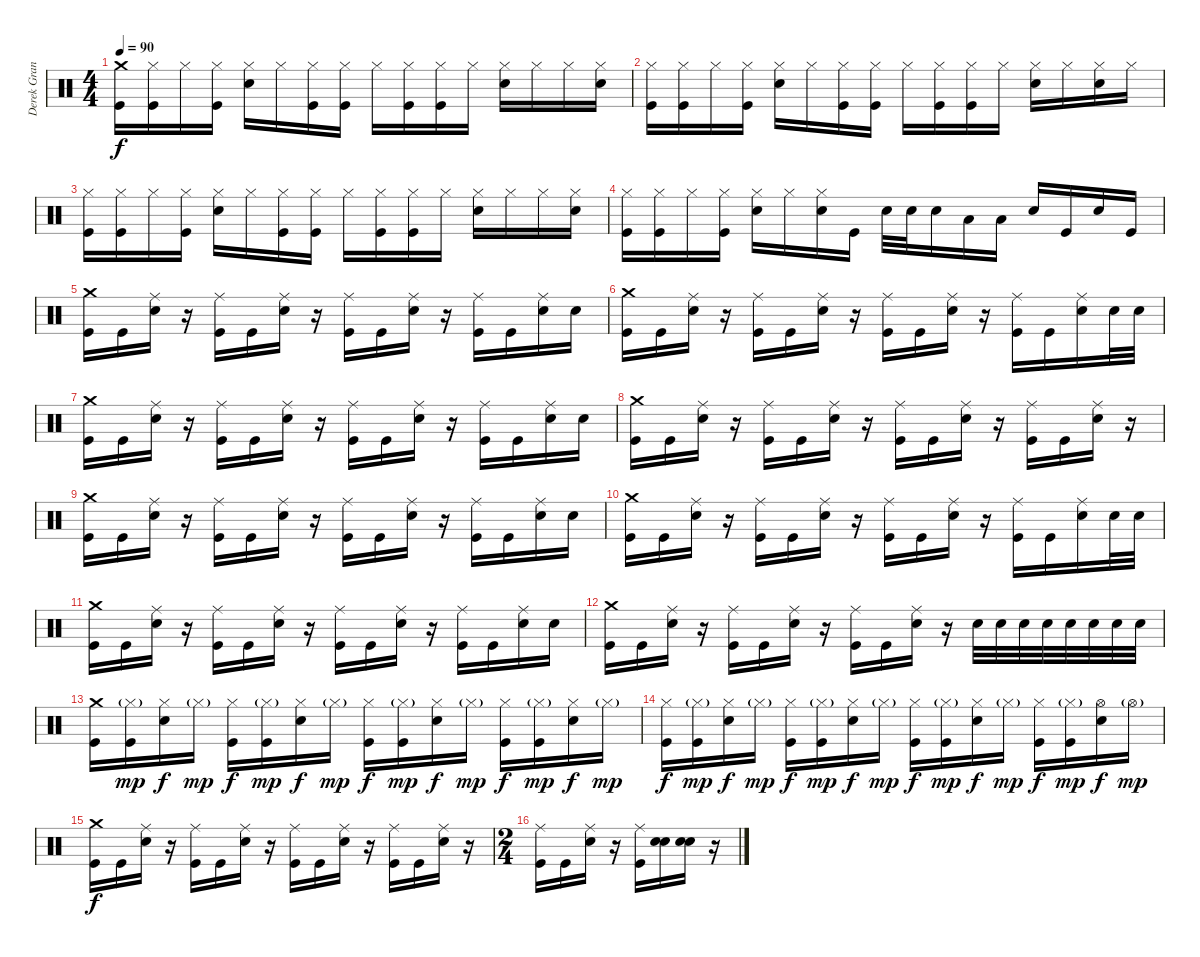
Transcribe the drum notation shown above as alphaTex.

\track ("Derek Grant" "Derek Gran") {instrument percussion}
\staff {score}
\articulation defaults
\ts (4 4)
\tempo 90
\clef neutral
\ks c
("Crash medium (hit)" "Kick (hit)").16{dy f} ("Hi-Hat (closed)" "Kick (hit)").16 "Hi-Hat (closed)".16 ("Hi-Hat (closed)" "Kick (hit)").16 ("Hi-Hat (closed)" "Electric Snare (hit)").16 "Hi-Hat (closed)".16 ("Hi-Hat (closed)" "Kick (hit)").16 ("Hi-Hat (closed)" "Kick (hit)").16 "Hi-Hat (closed)".16 ("Hi-Hat (closed)" "Kick (hit)").16 ("Hi-Hat (closed)" "Kick (hit)").16 "Hi-Hat (closed)".16 ("Hi-Hat (closed)" "Electric Snare (hit)").16 "Hi-Hat (closed)".16 "Hi-Hat (closed)".16 ("Hi-Hat (closed)" "Electric Snare (hit)").16 |
("Hi-Hat (closed)" "Kick (hit)").16 ("Hi-Hat (closed)" "Kick (hit)").16 "Hi-Hat (closed)".16 ("Hi-Hat (closed)" "Kick (hit)").16 ("Hi-Hat (closed)" "Electric Snare (hit)").16 "Hi-Hat (closed)".16 ("Hi-Hat (closed)" "Kick (hit)").16 ("Hi-Hat (closed)" "Kick (hit)").16 "Hi-Hat (closed)".16 ("Hi-Hat (closed)" "Kick (hit)").16 ("Hi-Hat (closed)" "Kick (hit)").16 "Hi-Hat (closed)".16 ("Hi-Hat (closed)" "Electric Snare (hit)").16 "Hi-Hat (closed)".16 ("Hi-Hat (closed)" "Electric Snare (hit)").16 "Hi-Hat (closed)".16 |
("Hi-Hat (closed)" "Kick (hit)").16 ("Hi-Hat (closed)" "Kick (hit)").16 "Hi-Hat (closed)".16 ("Hi-Hat (closed)" "Kick (hit)").16 ("Hi-Hat (closed)" "Electric Snare (hit)").16 "Hi-Hat (closed)".16 ("Hi-Hat (closed)" "Kick (hit)").16 ("Hi-Hat (closed)" "Kick (hit)").16 "Hi-Hat (closed)".16 ("Hi-Hat (closed)" "Kick (hit)").16 ("Hi-Hat (closed)" "Kick (hit)").16 "Hi-Hat (closed)".16 ("Hi-Hat (closed)" "Electric Snare (hit)").16 "Hi-Hat (closed)".16 "Hi-Hat (closed)".16 ("Hi-Hat (closed)" "Electric Snare (hit)").16 |
("Hi-Hat (closed)" "Kick (hit)").16 ("Hi-Hat (closed)" "Kick (hit)").16 "Hi-Hat (closed)".16 ("Hi-Hat (closed)" "Kick (hit)").16 ("Hi-Hat (closed)" "Electric Snare (hit)").16 "Hi-Hat (closed)".16 ("Hi-Hat (closed)" "Electric Snare (hit)").16 "Kick (hit)".16 "Electric Snare (hit)".32 "Electric Snare (hit)".32 "Electric Snare (hit)".16 "Low Tom (hit)".16 "Low Tom (hit)".16 "Electric Snare (hit)".16 "Kick (hit)".16 "Electric Snare (hit)".16 "Kick (hit)".16 |
("Crash medium (hit)" "Kick (hit)").16 "Kick (hit)".16 ("Ride (middle)" "Electric Snare (hit)").16 r.16 ("Ride (middle)" "Kick (hit)").16 "Kick (hit)".16 ("Ride (middle)" "Electric Snare (hit)").16 r.16 ("Ride (middle)" "Kick (hit)").16 "Kick (hit)".16 ("Ride (middle)" "Electric Snare (hit)").16 r.16 ("Ride (middle)" "Kick (hit)").16 "Kick (hit)".16 ("Ride (middle)" "Electric Snare (hit)").16 "Electric Snare (hit)".16 |
("Crash medium (hit)" "Kick (hit)").16 "Kick (hit)".16 ("Ride (middle)" "Electric Snare (hit)").16 r.16 ("Ride (middle)" "Kick (hit)").16 "Kick (hit)".16 ("Ride (middle)" "Electric Snare (hit)").16 r.16 ("Ride (middle)" "Kick (hit)").16 "Kick (hit)".16 ("Ride (middle)" "Electric Snare (hit)").16 r.16 ("Ride (middle)" "Kick (hit)").16 "Kick (hit)".16 ("Ride (middle)" "Electric Snare (hit)").16 "Electric Snare (hit)".32 "Electric Snare (hit)".32 |
("Crash medium (hit)" "Kick (hit)").16 "Kick (hit)".16 ("Ride (middle)" "Electric Snare (hit)").16 r.16 ("Ride (middle)" "Kick (hit)").16 "Kick (hit)".16 ("Ride (middle)" "Electric Snare (hit)").16 r.16 ("Ride (middle)" "Kick (hit)").16 "Kick (hit)".16 ("Ride (middle)" "Electric Snare (hit)").16 r.16 ("Ride (middle)" "Kick (hit)").16 "Kick (hit)".16 ("Ride (middle)" "Electric Snare (hit)").16 "Electric Snare (hit)".16 |
("Crash medium (hit)" "Kick (hit)").16 "Kick (hit)".16 ("Ride (middle)" "Electric Snare (hit)").16 r.16 ("Ride (middle)" "Kick (hit)").16 "Kick (hit)".16 ("Ride (middle)" "Electric Snare (hit)").16 r.16 ("Ride (middle)" "Kick (hit)").16 "Kick (hit)".16 ("Ride (middle)" "Electric Snare (hit)").16 r.16 ("Ride (middle)" "Kick (hit)").16 "Kick (hit)".16 ("Ride (middle)" "Electric Snare (hit)").16 r.16 |
("Crash medium (hit)" "Kick (hit)").16 "Kick (hit)".16 ("Ride (middle)" "Electric Snare (hit)").16 r.16 ("Ride (middle)" "Kick (hit)").16 "Kick (hit)".16 ("Ride (middle)" "Electric Snare (hit)").16 r.16 ("Ride (middle)" "Kick (hit)").16 "Kick (hit)".16 ("Ride (middle)" "Electric Snare (hit)").16 r.16 ("Ride (middle)" "Kick (hit)").16 "Kick (hit)".16 ("Ride (middle)" "Electric Snare (hit)").16 "Electric Snare (hit)".16 |
("Crash medium (hit)" "Kick (hit)").16 "Kick (hit)".16 ("Ride (middle)" "Electric Snare (hit)").16 r.16 ("Ride (middle)" "Kick (hit)").16 "Kick (hit)".16 ("Ride (middle)" "Electric Snare (hit)").16 r.16 ("Ride (middle)" "Kick (hit)").16 "Kick (hit)".16 ("Ride (middle)" "Electric Snare (hit)").16 r.16 ("Ride (middle)" "Kick (hit)").16 "Kick (hit)".16 ("Ride (middle)" "Electric Snare (hit)").16 "Electric Snare (hit)".32 "Electric Snare (hit)".32 |
("Crash medium (hit)" "Kick (hit)").16 "Kick (hit)".16 ("Ride (middle)" "Electric Snare (hit)").16 r.16 ("Ride (middle)" "Kick (hit)").16 "Kick (hit)".16 ("Ride (middle)" "Electric Snare (hit)").16 r.16 ("Ride (middle)" "Kick (hit)").16 "Kick (hit)".16 ("Ride (middle)" "Electric Snare (hit)").16 r.16 ("Ride (middle)" "Kick (hit)").16 "Kick (hit)".16 ("Ride (middle)" "Electric Snare (hit)").16 "Electric Snare (hit)".16 |
("Crash medium (hit)" "Kick (hit)").16 "Kick (hit)".16 ("Ride (middle)" "Electric Snare (hit)").16 r.16 ("Ride (middle)" "Kick (hit)").16 "Kick (hit)".16 ("Ride (middle)" "Electric Snare (hit)").16 r.16 ("Ride (middle)" "Kick (hit)").16 "Kick (hit)".16 ("Ride (middle)" "Electric Snare (hit)").16 r.16 "Electric Snare (hit)".32 "Electric Snare (hit)".32 "Electric Snare (hit)".32 "Electric Snare (hit)".32 "Electric Snare (hit)".32 "Electric Snare (hit)".32 "Electric Snare (hit)".32 "Electric Snare (hit)".32 |
("Crash medium (hit)" "Kick (hit)").16 ("Hi-Hat (closed)"{g} "Kick (hit)").16{dy mp} ("Hi-Hat (closed)" "Electric Snare (hit)").16{dy f} "Hi-Hat (closed)"{g}.16{dy mp} ("Hi-Hat (closed)" "Kick (hit)").16{dy f} ("Hi-Hat (closed)"{g} "Kick (hit)").16{dy mp} ("Hi-Hat (closed)" "Electric Snare (hit)").16{dy f} "Hi-Hat (closed)"{g}.16{dy mp} ("Hi-Hat (closed)" "Kick (hit)").16{dy f} ("Hi-Hat (closed)"{g} "Kick (hit)").16{dy mp} ("Hi-Hat (closed)" "Electric Snare (hit)").16{dy f} "Hi-Hat (closed)"{g}.16{dy mp} ("Hi-Hat (closed)" "Kick (hit)").16{dy f} ("Hi-Hat (closed)"{g} "Kick (hit)").16{dy mp} ("Hi-Hat (closed)" "Electric Snare (hit)").16{dy f} "Hi-Hat (closed)"{g}.16{dy mp} |
("Hi-Hat (closed)" "Kick (hit)").16{dy f} ("Hi-Hat (closed)"{g} "Kick (hit)").16{dy mp} ("Hi-Hat (closed)" "Electric Snare (hit)").16{dy f} "Hi-Hat (closed)"{g}.16{dy mp} ("Hi-Hat (closed)" "Kick (hit)").16{dy f} ("Hi-Hat (closed)"{g} "Kick (hit)").16{dy mp} ("Hi-Hat (closed)" "Electric Snare (hit)").16{dy f} "Hi-Hat (closed)"{g}.16{dy mp} ("Hi-Hat (closed)" "Kick (hit)").16{dy f} ("Hi-Hat (closed)"{g} "Kick (hit)").16{dy mp} ("Hi-Hat (closed)" "Electric Snare (hit)").16{dy f} "Hi-Hat (closed)"{g}.16{dy mp} ("Hi-Hat (closed)" "Kick (hit)").16{dy f} ("Hi-Hat (closed)"{g} "Kick (hit)").16{dy mp} ("Hi-Hat (open)" "Electric Snare (hit)").16{dy f} "Hi-Hat (open)"{g}.16{dy mp} |
("Crash medium (hit)" "Kick (hit)").16{dy f} "Kick (hit)".16 ("Ride (middle)" "Electric Snare (hit)").16 r.16 ("Ride (middle)" "Kick (hit)").16 "Kick (hit)".16 ("Ride (middle)" "Electric Snare (hit)").16 r.16 ("Ride (middle)" "Kick (hit)").16 "Kick (hit)".16 ("Ride (middle)" "Electric Snare (hit)").16 r.16 ("Ride (middle)" "Kick (hit)").16 "Kick (hit)".16 ("Ride (middle)" "Electric Snare (hit)").16 r.16 |
\ts (2 4)
("Ride (middle)" "Kick (hit)").16 "Kick (hit)".16 ("Ride (middle)" "Electric Snare (hit)").16 r.16 ("Ride (middle)" "Kick (hit)").16 ("Hand Clap (hit)" "Electric Snare (hit)").16 ("Hand Clap (hit)" "Electric Snare (hit)").16 r.16
